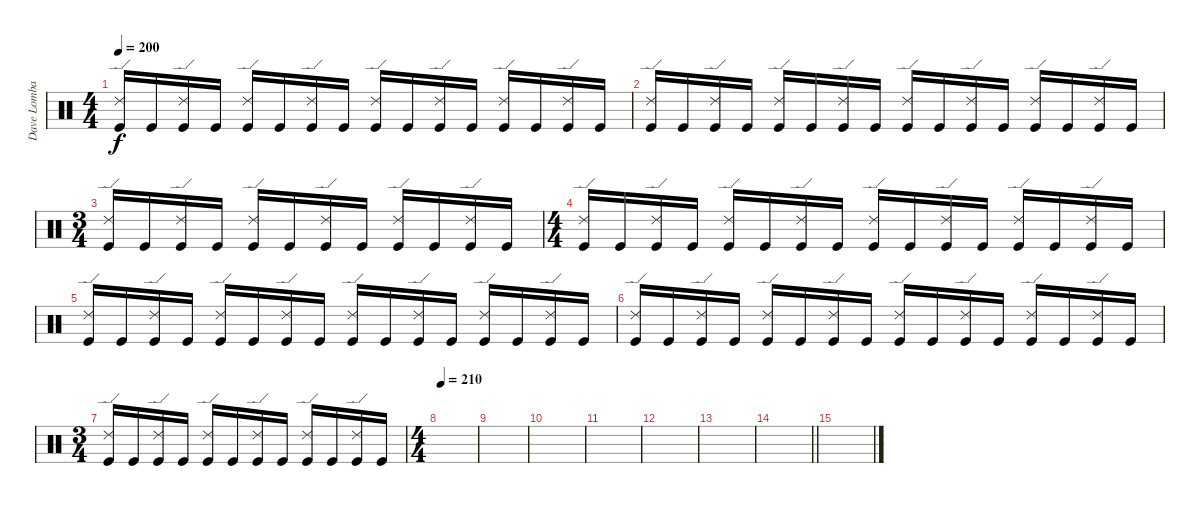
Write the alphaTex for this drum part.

\track ("Dave Lombardo:" "Dave Lomba") {instrument percussion}
\staff {score}
\articulation defaults
\ts (4 4)
\tempo 200
\clef neutral
\ks c
("Ride (edge) 2" "Kick (hit)").16{dy f} "Kick (hit)".16 ("Ride (edge) 2" "Kick (hit)").16 "Kick (hit)".16 ("Ride (edge) 2" "Kick (hit)").16 "Kick (hit)".16 ("Ride (edge) 2" "Kick (hit)").16 "Kick (hit)".16 ("Ride (edge) 2" "Kick (hit)").16 "Kick (hit)".16 ("Ride (edge) 2" "Kick (hit)").16 "Kick (hit)".16 ("Ride (edge) 2" "Kick (hit)").16 "Kick (hit)".16 ("Ride (edge) 2" "Kick (hit)").16 "Kick (hit)".16 |
("Ride (edge) 2" "Kick (hit)").16 "Kick (hit)".16 ("Ride (edge) 2" "Kick (hit)").16 "Kick (hit)".16 ("Ride (edge) 2" "Kick (hit)").16 "Kick (hit)".16 ("Ride (edge) 2" "Kick (hit)").16 "Kick (hit)".16 ("Ride (edge) 2" "Kick (hit)").16 "Kick (hit)".16 ("Ride (edge) 2" "Kick (hit)").16 "Kick (hit)".16 ("Ride (edge) 2" "Kick (hit)").16 "Kick (hit)".16 ("Ride (edge) 2" "Kick (hit)").16 "Kick (hit)".16 |
\ts (3 4)
("Ride (edge) 2" "Kick (hit)").16 "Kick (hit)".16 ("Ride (edge) 2" "Kick (hit)").16 "Kick (hit)".16 ("Ride (edge) 2" "Kick (hit)").16 "Kick (hit)".16 ("Ride (edge) 2" "Kick (hit)").16 "Kick (hit)".16 ("Ride (edge) 2" "Kick (hit)").16 "Kick (hit)".16 ("Ride (edge) 2" "Kick (hit)").16 "Kick (hit)".16 |
\ts (4 4)
("Ride (edge) 2" "Kick (hit)").16 "Kick (hit)".16 ("Ride (edge) 2" "Kick (hit)").16 "Kick (hit)".16 ("Ride (edge) 2" "Kick (hit)").16 "Kick (hit)".16 ("Ride (edge) 2" "Kick (hit)").16 "Kick (hit)".16 ("Ride (edge) 2" "Kick (hit)").16 "Kick (hit)".16 ("Ride (edge) 2" "Kick (hit)").16 "Kick (hit)".16 ("Ride (edge) 2" "Kick (hit)").16 "Kick (hit)".16 ("Ride (edge) 2" "Kick (hit)").16 "Kick (hit)".16 |
("Ride (edge) 2" "Kick (hit)").16 "Kick (hit)".16 ("Ride (edge) 2" "Kick (hit)").16 "Kick (hit)".16 ("Ride (edge) 2" "Kick (hit)").16 "Kick (hit)".16 ("Ride (edge) 2" "Kick (hit)").16 "Kick (hit)".16 ("Ride (edge) 2" "Kick (hit)").16 "Kick (hit)".16 ("Ride (edge) 2" "Kick (hit)").16 "Kick (hit)".16 ("Ride (edge) 2" "Kick (hit)").16 "Kick (hit)".16 ("Ride (edge) 2" "Kick (hit)").16 "Kick (hit)".16 |
("Ride (edge) 2" "Kick (hit)").16 "Kick (hit)".16 ("Ride (edge) 2" "Kick (hit)").16 "Kick (hit)".16 ("Ride (edge) 2" "Kick (hit)").16 "Kick (hit)".16 ("Ride (edge) 2" "Kick (hit)").16 "Kick (hit)".16 ("Ride (edge) 2" "Kick (hit)").16 "Kick (hit)".16 ("Ride (edge) 2" "Kick (hit)").16 "Kick (hit)".16 ("Ride (edge) 2" "Kick (hit)").16 "Kick (hit)".16 ("Ride (edge) 2" "Kick (hit)").16 "Kick (hit)".16 |
\ts (3 4)
("Ride (edge) 2" "Kick (hit)").16 "Kick (hit)".16 ("Ride (edge) 2" "Kick (hit)").16 "Kick (hit)".16 ("Ride (edge) 2" "Kick (hit)").16 "Kick (hit)".16 ("Ride (edge) 2" "Kick (hit)").16 "Kick (hit)".16 ("Ride (edge) 2" "Kick (hit)").16 "Kick (hit)".16 ("Ride (edge) 2" "Kick (hit)").16 "Kick (hit)".16 |
\ts (4 4)
\tempo 210
|
|
|
|
|
|
\barLineRight lightlight
|
\section ("" "")
